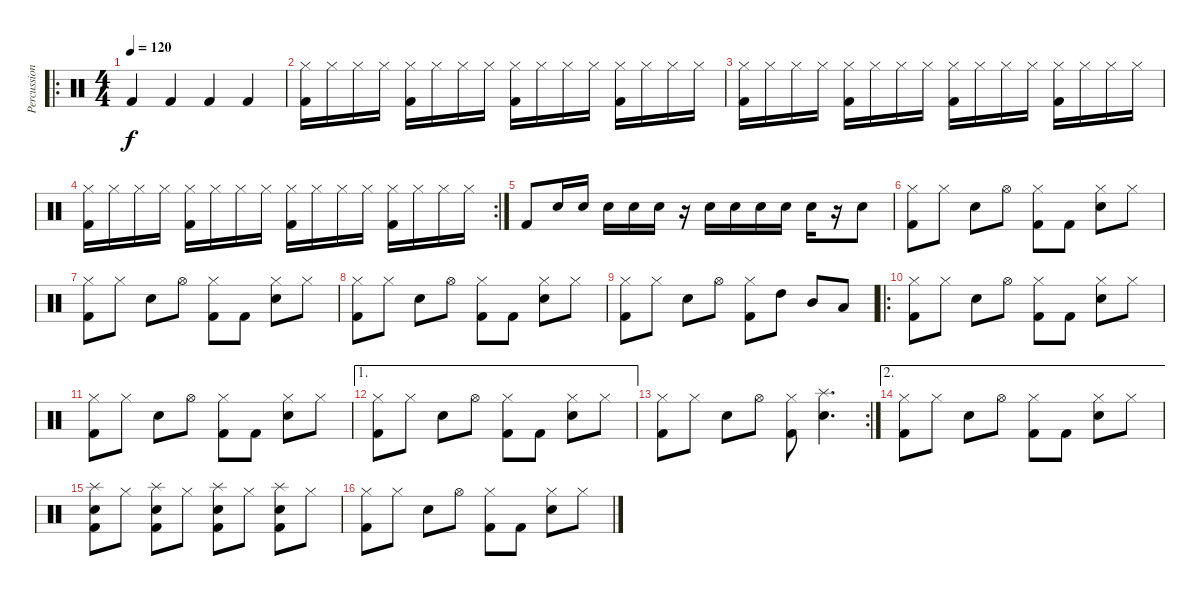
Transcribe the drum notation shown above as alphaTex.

\track ("Percussion" "Percussion") {instrument percussion}
\staff {score}
\articulation defaults
\ro
\ts (4 4)
\tempo 120
\clef neutral
\ks c "Kick (hit) 2".4{dy f} "Kick (hit) 2".4 "Kick (hit) 2".4 "Kick (hit) 2".4
|
("Hi-Hat (closed)" "Kick (hit) 2").16 "Hi-Hat (closed)".16 "Hi-Hat (closed)".16 "Hi-Hat (closed)".16 ("Hi-Hat (closed)" "Kick (hit) 2").16 "Hi-Hat (closed)".16 "Hi-Hat (closed)".16 "Hi-Hat (closed)".16 ("Hi-Hat (closed)" "Kick (hit) 2").16 "Hi-Hat (closed)".16 "Hi-Hat (closed)".16 "Hi-Hat (closed)".16 ("Hi-Hat (closed)" "Kick (hit) 2").16 "Hi-Hat (closed)".16 "Hi-Hat (closed)".16 "Hi-Hat (closed)".16 |
("Hi-Hat (closed)" "Kick (hit) 2").16 "Hi-Hat (closed)".16 "Hi-Hat (closed)".16 "Hi-Hat (closed)".16 ("Hi-Hat (closed)" "Kick (hit) 2").16 "Hi-Hat (closed)".16 "Hi-Hat (closed)".16 "Hi-Hat (closed)".16 ("Hi-Hat (closed)" "Kick (hit) 2").16 "Hi-Hat (closed)".16 "Hi-Hat (closed)".16 "Hi-Hat (closed)".16 ("Hi-Hat (closed)" "Kick (hit) 2").16 "Hi-Hat (closed)".16 "Hi-Hat (closed)".16 "Hi-Hat (closed)".16 |
\rc 2
("Hi-Hat (closed)" "Kick (hit) 2").16 "Hi-Hat (closed)".16 "Hi-Hat (closed)".16 "Hi-Hat (closed)".16 ("Hi-Hat (closed)" "Kick (hit) 2").16 "Hi-Hat (closed)".16 "Hi-Hat (closed)".16 "Hi-Hat (closed)".16 ("Hi-Hat (closed)" "Kick (hit) 2").16 "Hi-Hat (closed)".16 "Hi-Hat (closed)".16 "Hi-Hat (closed)".16 ("Hi-Hat (closed)" "Kick (hit) 2").16 "Hi-Hat (closed)".16 "Hi-Hat (closed)".16 "Hi-Hat (closed)".16 |
"Kick (hit) 2".8 "Snare (hit) 2".16 "Snare (hit) 2".16 "Snare (hit) 2".16 "Snare (hit) 2".16 "Snare (hit) 2".16 r.16 "Snare (hit) 2".16 "Snare (hit) 2".16 "Snare (hit) 2".16 "Snare (hit) 2".16 "Snare (hit) 2".16 r.16 "Snare (hit) 2".8 |
("Hi-Hat (closed)" "Kick (hit) 2").8 "Hi-Hat (closed)".8 "Snare (hit) 2".8 "Hi-Hat (open)".8 ("Hi-Hat (closed)" "Kick (hit) 2").8 "Kick (hit) 2".8 ("Hi-Hat (closed)" "Snare (hit) 2").8 "Hi-Hat (closed)".8 |
("Hi-Hat (closed)" "Kick (hit) 2").8 "Hi-Hat (closed)".8 "Snare (hit) 2".8 "Hi-Hat (open)".8 ("Hi-Hat (closed)" "Kick (hit) 2").8 "Kick (hit) 2".8 ("Hi-Hat (closed)" "Snare (hit) 2").8 "Hi-Hat (closed)".8 |
("Hi-Hat (closed)" "Kick (hit) 2").8 "Hi-Hat (closed)".8 "Snare (hit) 2".8 "Hi-Hat (open)".8 ("Hi-Hat (closed)" "Kick (hit) 2").8 "Kick (hit) 2".8 ("Hi-Hat (closed)" "Snare (hit) 2").8 "Hi-Hat (closed)".8 |
("Hi-Hat (closed)" "Kick (hit) 2").8 "Hi-Hat (closed)".8 "Snare (hit) 2".8 "Hi-Hat (open)".8 ("Hi-Hat (closed)" "Kick (hit) 2").8 "High Tom (hit)".8 "Mid Tom (hit)".8 "Low Tom (hit)".8 |
\ro
("Hi-Hat (closed)" "Kick (hit) 2").8 "Hi-Hat (closed)".8 "Snare (hit) 2".8 "Hi-Hat (open)".8 ("Hi-Hat (closed)" "Kick (hit) 2").8 "Kick (hit) 2".8 ("Hi-Hat (closed)" "Snare (hit) 2").8 "Hi-Hat (closed)".8 |
("Hi-Hat (closed)" "Kick (hit) 2").8 "Hi-Hat (closed)".8 "Snare (hit) 2".8 "Hi-Hat (open)".8 ("Hi-Hat (closed)" "Kick (hit) 2").8 "Kick (hit) 2".8 ("Hi-Hat (closed)" "Snare (hit) 2").8 "Hi-Hat (closed)".8 |
\ae 1
("Hi-Hat (closed)" "Kick (hit) 2").8 "Hi-Hat (closed)".8 "Snare (hit) 2".8 "Hi-Hat (open)".8 ("Hi-Hat (closed)" "Kick (hit) 2").8 "Kick (hit) 2".8 ("Hi-Hat (closed)" "Snare (hit) 2").8 "Hi-Hat (closed)".8 |
\rc 2
("Hi-Hat (closed)" "Kick (hit) 2").8 "Hi-Hat (closed)".8 "Snare (hit) 2".8 "Hi-Hat (open)".8 ("Hi-Hat (closed)" "Kick (hit) 2").8 ("Splash (hit)" "Snare (hit) 2").4{d} |
\ae 2
("Hi-Hat (closed)" "Kick (hit) 2").8 "Hi-Hat (closed)".8 "Snare (hit) 2".8 "Hi-Hat (open)".8 ("Hi-Hat (closed)" "Kick (hit) 2").8 "Kick (hit) 2".8 ("Hi-Hat (closed)" "Snare (hit) 2").8 "Hi-Hat (closed)".8 |
("Splash (hit)" "Snare (hit) 2" "Kick (hit) 2").8 "Hi-Hat (closed)".8 ("Splash (hit)" "Snare (hit) 2" "Kick (hit) 2").8 "Hi-Hat (closed)".8 ("Splash (hit)" "Snare (hit) 2" "Kick (hit) 2").8 "Hi-Hat (closed)".8 ("Splash (hit)" "Snare (hit) 2" "Kick (hit) 2").8 "Hi-Hat (closed)".8 |
("Hi-Hat (closed)" "Kick (hit) 2").8 "Hi-Hat (closed)".8 "Snare (hit) 2".8 "Hi-Hat (open)".8 ("Hi-Hat (closed)" "Kick (hit) 2").8 "Kick (hit) 2".8 ("Hi-Hat (closed)" "Snare (hit) 2").8 "Hi-Hat (closed)".8
